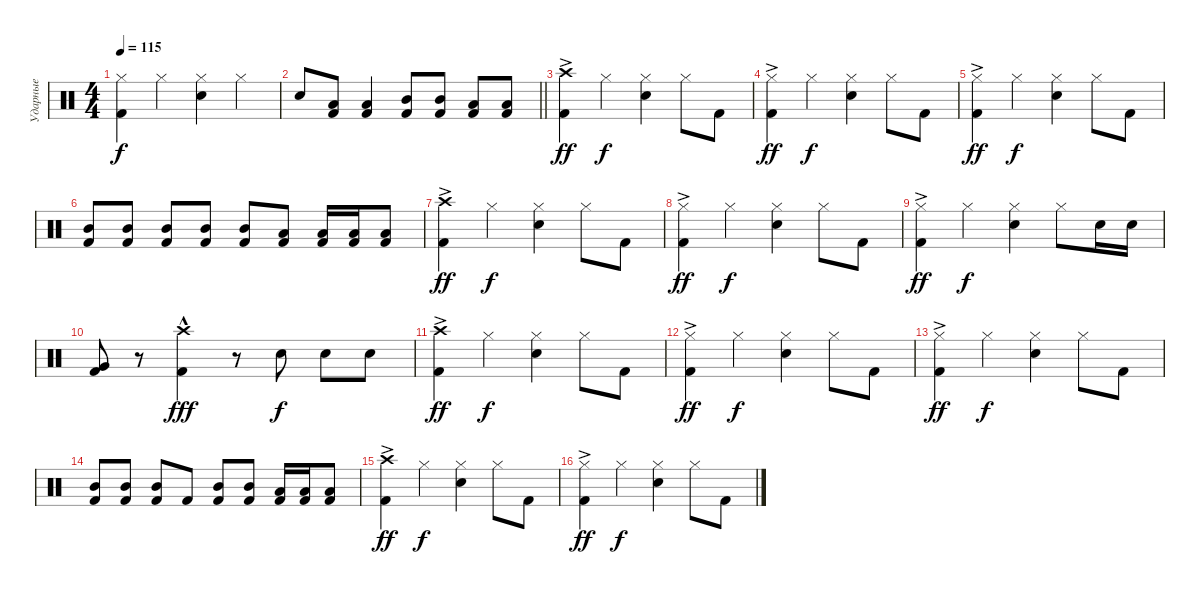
\track ("Ударные" "Ударные") {instrument percussion}
\staff {score}
\articulation defaults
\ts (4 4)
\tempo 115
\clef neutral
\ks c
("Kick (hit) 2" "Hi-Hat (closed)").4{dy f} "Hi-Hat (closed)".4 ("Snare (hit) 2" "Hi-Hat (closed)").4 "Hi-Hat (closed)".4 |
\barLineRight lightlight "Snare (hit) 2".8
("Kick (hit) 2" "Low Floor Tom (hit)").8 ("Kick (hit) 2" "Low Floor Tom (hit)").4 ("Kick (hit) 2" "Mid Tom (hit)").8 ("Kick (hit) 2" "Mid Tom (hit)").8 ("Kick (hit) 2" "Low Tom (hit)").8 ("Kick (hit) 2" "Low Tom (hit)").8 |
("Kick (hit) 2" "Crash high (hit)"{ac}).4{dy ff} "Hi-Hat (closed)".4{dy f} ("Snare (hit) 2" "Hi-Hat (closed)").4 "Hi-Hat (closed)".8 "Kick (hit) 2".8 |
("Kick (hit) 2" "Hi-Hat (closed)"{ac}).4{dy ff} "Hi-Hat (closed)".4{dy f} ("Snare (hit) 2" "Hi-Hat (closed)").4 "Hi-Hat (closed)".8 "Kick (hit) 2".8 |
("Kick (hit) 2" "Hi-Hat (closed)"{ac}).4{dy ff} "Hi-Hat (closed)".4{dy f} ("Snare (hit) 2" "Hi-Hat (closed)").4 "Hi-Hat (closed)".8 "Kick (hit) 2".8 |
("Kick (hit) 2" "Mid Tom (hit)").8 ("Kick (hit) 2" "Mid Tom (hit)").8 ("Kick (hit) 2" "Mid Tom (hit)").8 ("Kick (hit) 2" "Mid Tom (hit)").8 ("Kick (hit) 2" "Mid Tom (hit)").8 ("Kick (hit) 2" "Low Tom (hit)").8 ("Kick (hit) 2" "Low Tom (hit)").16 ("Kick (hit) 2" "Low Tom (hit)").16 ("Kick (hit) 2" "Low Tom (hit)").8 |
("Kick (hit) 2" "Crash high (hit)"{ac}).4{dy ff} "Hi-Hat (closed)".4{dy f} ("Snare (hit) 2" "Hi-Hat (closed)").4 "Hi-Hat (closed)".8 "Kick (hit) 2".8 |
("Kick (hit) 2" "Hi-Hat (closed)"{ac}).4{dy ff} "Hi-Hat (closed)".4{dy f} ("Snare (hit) 2" "Hi-Hat (closed)").4 "Hi-Hat (closed)".8 "Kick (hit) 2".8 |
("Kick (hit) 2" "Hi-Hat (closed)"{ac}).4{dy ff} "Hi-Hat (closed)".4{dy f} ("Snare (hit) 2" "Hi-Hat (closed)").4 "Hi-Hat (closed)".8 "Snare (hit) 2".16 "Snare (hit) 2".16 |
("Kick (hit) 2" "Very Low Tom (hit)").8 r.8 ("Kick (hit) 2" "Crash high (hit)"{hac}).4{dy fff} r.8 "Snare (hit) 2".8{dy f} "Electric Snare (hit)".8 "Snare (hit) 2".8 |
("Kick (hit) 2" "Crash high (hit)"{ac}).4{dy ff} "Hi-Hat (closed)".4{dy f} ("Snare (hit) 2" "Hi-Hat (closed)").4 "Hi-Hat (closed)".8 "Kick (hit) 2".8 |
("Kick (hit) 2" "Hi-Hat (closed)"{ac}).4{dy ff} "Hi-Hat (closed)".4{dy f} ("Snare (hit) 2" "Hi-Hat (closed)").4 "Hi-Hat (closed)".8 "Kick (hit) 2".8 |
("Kick (hit) 2" "Hi-Hat (closed)"{ac}).4{dy ff} "Hi-Hat (closed)".4{dy f} ("Snare (hit) 2" "Hi-Hat (closed)").4 "Hi-Hat (closed)".8 "Kick (hit) 2".8 |
("Kick (hit) 2" "Mid Tom (hit)").8 ("Kick (hit) 2" "Mid Tom (hit)").8 ("Kick (hit) 2" "Mid Tom (hit)").8 "Kick (hit) 2".8 ("Kick (hit) 2" "Mid Tom (hit)").8 ("Kick (hit) 2" "Mid Tom (hit)").8 ("Kick (hit) 2" "Low Tom (hit)").16 ("Kick (hit) 2" "Low Tom (hit)").16 ("Kick (hit) 2" "Low Tom (hit)").8 |
("Kick (hit) 2" "Crash high (hit)"{ac}).4{dy ff} "Hi-Hat (closed)".4{dy f} ("Snare (hit) 2" "Hi-Hat (closed)").4 "Hi-Hat (closed)".8 "Kick (hit) 2".8 |
("Kick (hit) 2" "Hi-Hat (closed)"{ac}).4{dy ff} "Hi-Hat (closed)".4{dy f} ("Snare (hit) 2" "Hi-Hat (closed)").4 "Hi-Hat (closed)".8 "Kick (hit) 2".8
